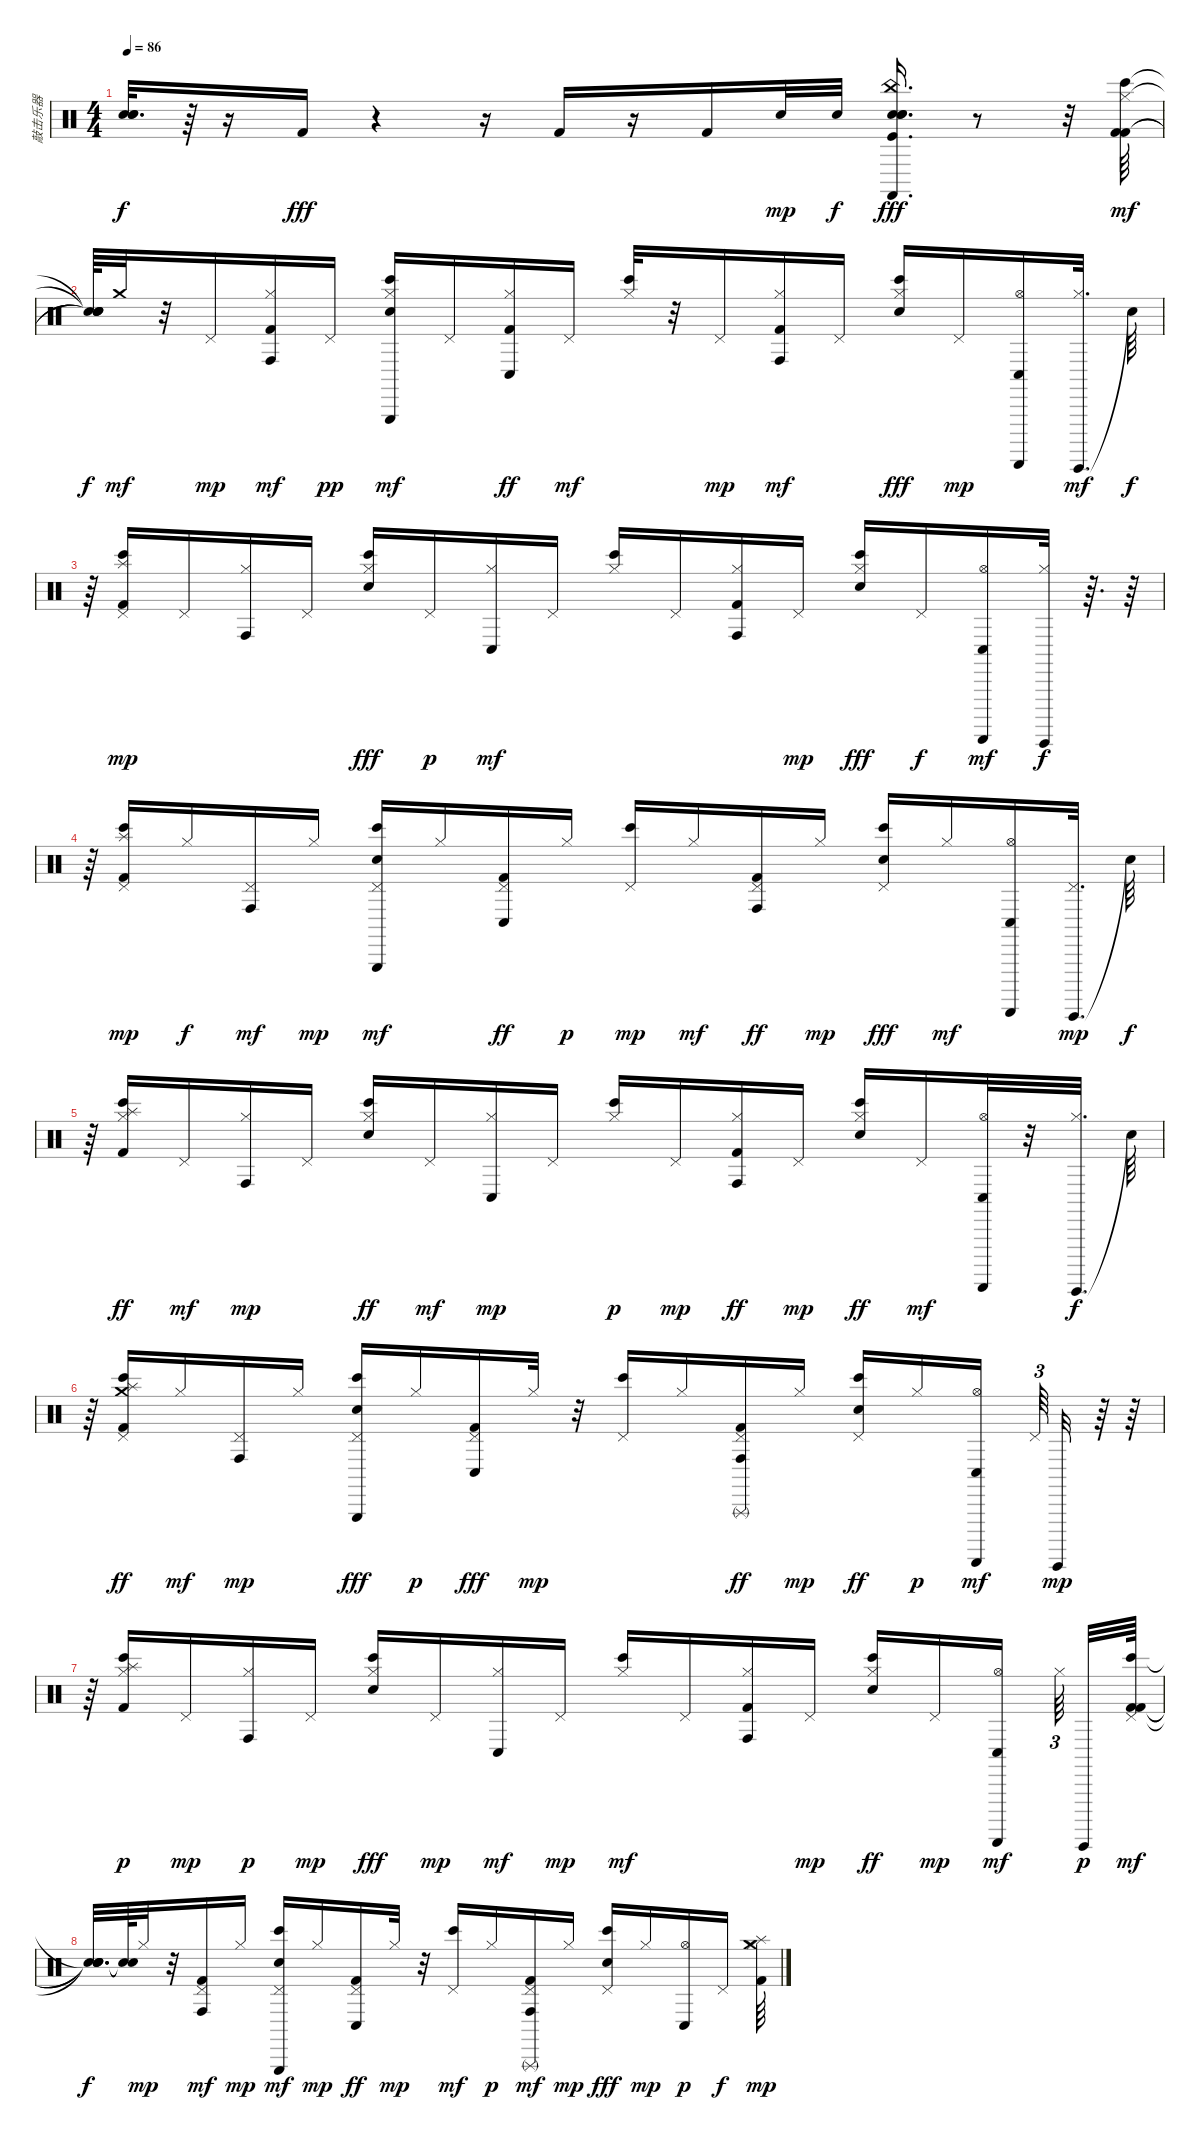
\track ("敲击乐器" "敲击乐器") {instrument percussion}
\staff {score}
\articulation defaults
\ts (4 4)
\tempo 86
\clef neutral
\ks c
("Snare (hit)"{t} "Snare (hit)"{t} "Snare (hit)"{t}).32{d dy f} r.64 r.16 "Kick (hit) 2".16{dy fff} r.4 r.16 "Kick (hit) 2".16 r.16 "Kick (hit) 2".16 "Electric Snare (hit)".32{dy mp} "Electric Snare (hit)".32{dy f} ("China (hit)" "Castanets (hit)" "Snare (hit)" "Hand Clap (hit)" "Kick (hit)" "Electric Snare (hit)").16{d dy fff} r.8 r.32 ("Hi-Hat (closed)" "Bongo High (hit)" "Kick (hit) 2" "Kick (hit) 2").64{dy mf} |
("Snare (hit)"{t} "Snare (hit)"{t} "Snare (hit)"{t} "Snare (hit)"{t}).64{dy f} "Crash medium (hit)".32{dy mf} r.32 "Pedal Hi-Hat (hit)".16{dy mp} ("Hi-Hat (closed)" "Conga high (hit)" "Kick (hit) 2").16{dy mf} "Pedal Hi-Hat (hit)".16{dy pp} ("Hi-Hat (closed)" "Electric Snare (hit)" "Bongo High (hit)" "Triangle (hit)").16{dy mf} "Pedal Hi-Hat (hit)".16 ("Hi-Hat (closed)" "Conga low (hit)" "Kick (hit) 2").16{dy ff} "Pedal Hi-Hat (hit)".16{dy mf} ("Hi-Hat (closed)" "Bongo High (hit)").32 r.32 "Pedal Hi-Hat (hit)".16{dy mp} ("Hi-Hat (closed)" "Conga high (hit)" "Kick (hit) 2").16{dy mf} "Pedal Hi-Hat (hit)".16 ("Hi-Hat (closed)" "Electric Snare (hit)" "Bongo High (hit)").16{dy fff} "Pedal Hi-Hat (hit)".16{dy mp} ("Hi-Hat (open)" "Conga low (hit)" "Guiro (scrap-return)").16 ("Guiro (hit)" "Hi-Hat (closed)").32{d dy mf} "Snare (hit)"{t}.64{dy f} |
r.64 ("Pedal Hi-Hat (hit)" "Bongo High (hit)" "Kick (hit) 2" "Splash (hit)").16{dy mp} "Pedal Hi-Hat (hit)".16 ("Hi-Hat (closed)" "Conga high (hit)").16 "Pedal Hi-Hat (hit)".16 ("Hi-Hat (closed)" "Electric Snare (hit)" "Bongo High (hit)").16{dy fff} "Pedal Hi-Hat (hit)".16{dy p} ("Hi-Hat (closed)" "Conga low (hit)").16{dy mf} "Pedal Hi-Hat (hit)".16 ("Hi-Hat (closed)" "Bongo High (hit)").16 "Pedal Hi-Hat (hit)".16 ("Hi-Hat (closed)" "Conga high (hit)" "Kick (hit) 2").16 "Pedal Hi-Hat (hit)".16{dy mp} ("Hi-Hat (closed)" "Electric Snare (hit)" "Bongo High (hit)").16{dy fff} "Pedal Hi-Hat (hit)".16{dy f} ("Hi-Hat (open)" "Conga low (hit)" "Guiro (scrap-return)").16{dy mf} ("Hi-Hat (closed)" "Guiro (hit)").32{dy f} r.64{d} r.64 |
r.64 ("Pedal Hi-Hat (hit)" "Bongo High (hit)" "Kick (hit) 2" "Splash (hit)").16{dy mp} "Hi-Hat (closed)".16{dy f} ("Pedal Hi-Hat (hit)" "Conga high (hit)").16{dy mf} "Hi-Hat (closed)".16{dy mp} ("Pedal Hi-Hat (hit)" "Triangle (hit)" "Electric Snare (hit)" "Bongo High (hit)").16{dy mf} "Hi-Hat (closed)".16 ("Pedal Hi-Hat (hit)" "Conga low (hit)" "Kick (hit) 2").16{dy ff} "Hi-Hat (closed)".16{dy p} ("Pedal Hi-Hat (hit)" "Bongo High (hit)").16{dy mp} "Hi-Hat (closed)".16{dy mf} ("Pedal Hi-Hat (hit)" "Conga high (hit)" "Kick (hit) 2").16{dy ff} "Hi-Hat (closed)".16{dy mp} ("Pedal Hi-Hat (hit)" "Electric Snare (hit)" "Bongo High (hit)").16{dy fff} "Hi-Hat (closed)".16{dy mf} ("Hi-Hat (open)" "Guiro (scrap-return)" "Conga low (hit)").16 ("Guiro (hit)" "Pedal Hi-Hat (hit)").32{d dy mp} "Snare (hit)"{t}.64{dy f} |
r.64 ("Hi-Hat (closed)" "Splash (hit)" "Bongo High (hit)" "Kick (hit) 2").16{dy ff} "Pedal Hi-Hat (hit)".16{dy mf} ("Hi-Hat (closed)" "Conga high (hit)").16{dy mp} "Pedal Hi-Hat (hit)".16 ("Hi-Hat (closed)" "Electric Snare (hit)" "Bongo High (hit)").16{dy ff} "Pedal Hi-Hat (hit)".16{dy mf} ("Hi-Hat (closed)" "Conga low (hit)").16{dy mp} "Pedal Hi-Hat (hit)".16 ("Hi-Hat (closed)" "Bongo High (hit)").16{dy p} "Pedal Hi-Hat (hit)".16{dy mp} ("Hi-Hat (closed)" "Conga high (hit)" "Kick (hit) 2").16{dy ff} "Pedal Hi-Hat (hit)".16{dy mp} ("Hi-Hat (closed)" "Electric Snare (hit)" "Bongo High (hit)").16{dy ff} "Pedal Hi-Hat (hit)".16{dy mf} ("Guiro (scrap-return)" "Hi-Hat (open)" "Conga low (hit)").32 r.32 ("Guiro (hit)" "Hi-Hat (closed)").32{d dy f} "Snare (hit)"{t}.64 |
r.64 ("Splash (hit)" "Crash medium (hit)" "Pedal Hi-Hat (hit)" "Bongo High (hit)" "Kick (hit) 2").16{dy ff} "Hi-Hat (closed)".16{dy mf} ("Pedal Hi-Hat (hit)" "Conga high (hit)").16{dy mp} "Hi-Hat (closed)".16 ("Pedal Hi-Hat (hit)" "Triangle (hit)" "Bongo High (hit)" "Electric Snare (hit)").16{dy fff} "Hi-Hat (closed)".16{dy p} ("Pedal Hi-Hat (hit)" "Conga low (hit)" "Kick (hit) 2").16{dy fff} "Hi-Hat (closed)".32{dy mp} r.32 ("Pedal Hi-Hat (hit)" "Bongo High (hit)").16 "Hi-Hat (closed)".16 ("Pedal Hi-Hat (hit)" "Triangle (rnute)" "Conga high (hit)" "Kick (hit) 2").16{dy ff} "Hi-Hat (closed)".16{dy mp} ("Pedal Hi-Hat (hit)" "Bongo High (hit)" "Electric Snare (hit)").16{dy ff} "Hi-Hat (closed)".16{dy p} ("Hi-Hat (open)" "Conga low (hit)" "Guiro (scrap-return)").16{dy mf beam splitsecondary} "Pedal Hi-Hat (hit)".64{tu (3 2)} "Guiro (hit)".32{dy mp} r.64 r.64 |
r.64 ("Hi-Hat (closed)" "Bongo High (hit)" "Kick (hit) 2" "Splash (hit)").16{dy p} "Pedal Hi-Hat (hit)".16{dy mp} ("Hi-Hat (closed)" "Conga high (hit)").16{dy p} "Pedal Hi-Hat (hit)".16{dy mp} ("Hi-Hat (closed)" "Bongo High (hit)" "Electric Snare (hit)").16{dy fff} "Pedal Hi-Hat (hit)".16{dy mp} ("Hi-Hat (closed)" "Conga low (hit)").16{dy mf} "Pedal Hi-Hat (hit)".16{dy mp} ("Hi-Hat (closed)" "Bongo High (hit)").16{dy mf} "Pedal Hi-Hat (hit)".16 ("Hi-Hat (closed)" "Conga high (hit)" "Kick (hit) 2").16 "Pedal Hi-Hat (hit)".16{dy mp} ("Hi-Hat (closed)" "Electric Snare (hit)" "Bongo High (hit)").16{dy ff} "Pedal Hi-Hat (hit)".16{dy mp} ("Hi-Hat (open)" "Conga low (hit)" "Guiro (scrap-return)").16{dy mf beam splitsecondary} "Hi-Hat (closed)".64{tu (3 2) beam splitsecondary} "Guiro (hit)".32{dy p} ("Pedal Hi-Hat (hit)" "Bongo High (hit)" "Kick (hit) 2" "Kick (hit) 2").64{dy mf} |
("Snare (hit)"{t} "Snare (hit)"{t} "Snare (hit)"{t} "Snare (hit)"{t}).32{d dy f} ("Snare (hit)"{t} "Snare (hit)"{t}).64 "Hi-Hat (closed)".32{dy mp} r.32 ("Pedal Hi-Hat (hit)" "Conga high (hit)" "Kick (hit) 2").16{dy mf} "Hi-Hat (closed)".16{dy mp} ("Pedal Hi-Hat (hit)" "Triangle (hit)" "Electric Snare (hit)" "Bongo High (hit)").16{dy mf} "Hi-Hat (closed)".16{dy mp} ("Pedal Hi-Hat (hit)" "Conga low (hit)" "Kick (hit) 2").16{dy ff} "Hi-Hat (closed)".32{dy mp} r.32 ("Pedal Hi-Hat (hit)" "Bongo High (hit)").16{dy mf} "Hi-Hat (closed)".16{dy p} ("Pedal Hi-Hat (hit)" "Conga high (hit)" "Triangle (rnute)" "Kick (hit) 2").16{dy mf} "Hi-Hat (closed)".16{dy mp} ("Pedal Hi-Hat (hit)" "Electric Snare (hit)" "Bongo High (hit)").16{dy fff} "Hi-Hat (closed)".16{dy mp} ("Hi-Hat (open)" "Conga low (hit)").16{dy p} "Pedal Hi-Hat (hit)".16{dy f} ("Hi-Hat (closed)" "Splash (hit)" "Kick (hit) 2" "Crash medium (hit)").64{dy mp}
